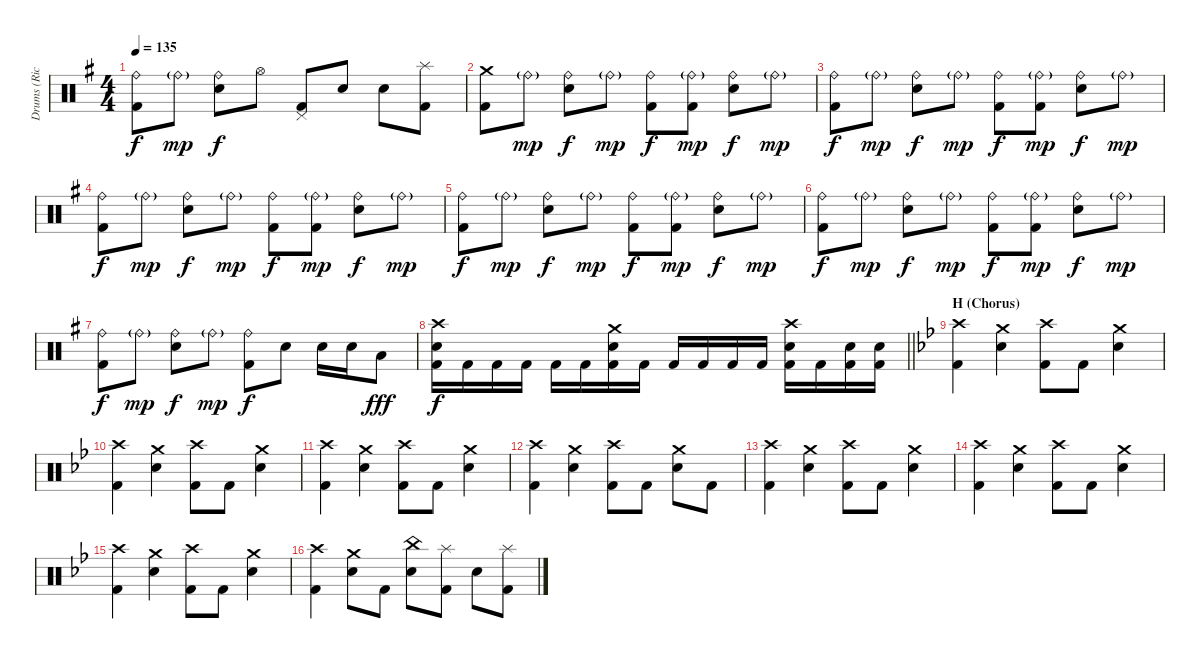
\track ("Drums (Richard Evensand)" "Drums (Ric") {instrument percussion}
\staff {score}
\articulation defaults
\ts (4 4)
\tempo 135
\clef neutral
\ks eminor
("Ride (bell)" "Kick (hit) 2").8{dy f} "Ride (bell)"{g}.8{dy mp} ("Ride (bell)" "Electric Snare (hit)").8{dy f} "Hi-Hat (open)".8 ("Pedal Hi-Hat (hit)" "Kick (hit) 2").8 "Electric Snare (hit)".8 "Electric Snare (hit)".8 ("Splash (hit)" "Kick (hit) 2").8 |
("Crash medium (hit)" "Kick (hit) 2").8 "Ride (bell)"{g}.8{dy mp} ("Ride (bell)" "Electric Snare (hit)").8{dy f} "Ride (bell)"{g}.8{dy mp} ("Ride (bell)" "Kick (hit) 2").8{dy f} ("Ride (bell)"{g} "Kick (hit) 2").8{dy mp} ("Ride (bell)" "Electric Snare (hit)").8{dy f} "Ride (bell)"{g}.8{dy mp} |
("Ride (bell)" "Kick (hit) 2").8{dy f} "Ride (bell)"{g}.8{dy mp} ("Ride (bell)" "Electric Snare (hit)").8{dy f} "Ride (bell)"{g}.8{dy mp} ("Ride (bell)" "Kick (hit) 2").8{dy f} ("Ride (bell)"{g} "Kick (hit) 2").8{dy mp} ("Ride (bell)" "Electric Snare (hit)").8{dy f} "Ride (bell)"{g}.8{dy mp} |
("Ride (bell)" "Kick (hit) 2").8{dy f} "Ride (bell)"{g}.8{dy mp} ("Ride (bell)" "Electric Snare (hit)").8{dy f} "Ride (bell)"{g}.8{dy mp} ("Ride (bell)" "Kick (hit) 2").8{dy f} ("Ride (bell)"{g} "Kick (hit) 2").8{dy mp} ("Ride (bell)" "Electric Snare (hit)").8{dy f} "Ride (bell)"{g}.8{dy mp} |
("Ride (bell)" "Kick (hit) 2").8{dy f} "Ride (bell)"{g}.8{dy mp} ("Ride (bell)" "Electric Snare (hit)").8{dy f} "Ride (bell)"{g}.8{dy mp} ("Ride (bell)" "Kick (hit) 2").8{dy f} ("Ride (bell)"{g} "Kick (hit) 2").8{dy mp} ("Ride (bell)" "Electric Snare (hit)").8{dy f} "Ride (bell)"{g}.8{dy mp} |
("Ride (bell)" "Kick (hit) 2").8{dy f} "Ride (bell)"{g}.8{dy mp} ("Ride (bell)" "Electric Snare (hit)").8{dy f} "Ride (bell)"{g}.8{dy mp} ("Ride (bell)" "Kick (hit) 2").8{dy f} ("Ride (bell)"{g} "Kick (hit) 2").8{dy mp} ("Ride (bell)" "Electric Snare (hit)").8{dy f} "Ride (bell)"{g}.8{dy mp} |
("Ride (bell)" "Kick (hit) 2").8{dy f} "Ride (bell)"{g}.8{dy mp} ("Ride (bell)" "Electric Snare (hit)").8{dy f} "Ride (bell)"{g}.8{dy mp} ("Ride (bell)" "Kick (hit) 2").8{dy f} "Electric Snare (hit)".8 "Electric Snare (hit)".16 "Electric Snare (hit)".16 "Low Tom (hit)".8{dy fff} |
\barLineRight lightlight
("Crash high (hit)" "Electric Snare (hit)" "Kick (hit) 2").16{dy f} "Kick (hit) 2".16 "Kick (hit) 2".16 "Kick (hit) 2".16 "Kick (hit) 2".16 "Kick (hit) 2".16 ("Crash medium (hit)" "Electric Snare (hit)" "Kick (hit) 2").16 "Kick (hit) 2".16 "Kick (hit) 2".16 "Kick (hit) 2".16 "Kick (hit) 2".16 "Kick (hit) 2".16 ("Crash high (hit)" "Electric Snare (hit)" "Kick (hit) 2").16 "Kick (hit) 2".16 ("Electric Snare (hit)" "Kick (hit) 2").16 ("Electric Snare (hit)" "Kick (hit) 2").16 |
\section ("" "H (Chorus)")
\ks gminor
("Crash high (hit)" "Kick (hit) 2").4 ("Crash medium (hit)" "Electric Snare (hit)").4 ("Crash high (hit)" "Kick (hit) 2").8 "Kick (hit) 2".8 ("Crash medium (hit)" "Electric Snare (hit)").4 |
("Crash high (hit)" "Kick (hit) 2").4 ("Crash medium (hit)" "Electric Snare (hit)").4 ("Crash high (hit)" "Kick (hit) 2").8 "Kick (hit) 2".8 ("Crash medium (hit)" "Electric Snare (hit)").4 |
("Crash high (hit)" "Kick (hit) 2").4 ("Crash medium (hit)" "Electric Snare (hit)").4 ("Crash high (hit)" "Kick (hit) 2").8 "Kick (hit) 2".8 ("Crash medium (hit)" "Electric Snare (hit)").4 |
("Crash high (hit)" "Kick (hit) 2").4 ("Crash medium (hit)" "Electric Snare (hit)").4 ("Crash high (hit)" "Kick (hit) 2").8 "Kick (hit) 2".8 ("Crash medium (hit)" "Electric Snare (hit)").8 "Kick (hit) 2".8 |
("Crash high (hit)" "Kick (hit) 2").4 ("Crash medium (hit)" "Electric Snare (hit)").4 ("Crash high (hit)" "Kick (hit) 2").8 "Kick (hit) 2".8 ("Crash medium (hit)" "Electric Snare (hit)").4 |
("Crash high (hit)" "Kick (hit) 2").4 ("Crash medium (hit)" "Electric Snare (hit)").4 ("Crash high (hit)" "Kick (hit) 2").8 "Kick (hit) 2".8 ("Crash medium (hit)" "Electric Snare (hit)").4 |
("Crash high (hit)" "Kick (hit) 2").4 ("Crash medium (hit)" "Electric Snare (hit)").4 ("Crash high (hit)" "Kick (hit) 2").8 "Kick (hit) 2".8 ("Crash medium (hit)" "Electric Snare (hit)").4 |
("Crash high (hit)" "Kick (hit) 2").4 ("Crash medium (hit)" "Electric Snare (hit)").8 "Kick (hit) 2".8 ("China (hit)" "Electric Snare (hit)").8 ("Splash (hit)" "Kick (hit) 2").8 "Electric Snare (hit)".8 ("Splash (hit)" "Kick (hit) 2").8
